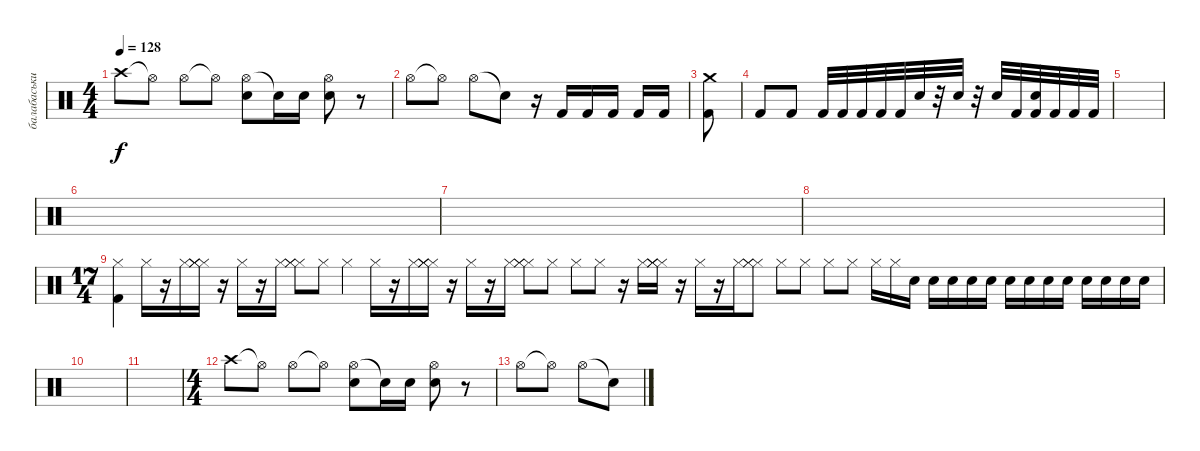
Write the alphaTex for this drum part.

\track ("балабаськи" "балабаськи") {instrument percussion}
\staff {score}
\articulation defaults
\ts (4 4)
\tempo 128
\clef neutral
\ks c "Crash high (hit)".8{dy f} "Hi-Hat (open)"{t}.8 "Hi-Hat (open)".8 "Hi-Hat (open)"{t}.8
("Hi-Hat (open)" "Snare (hit) 2").8 "Snare (hit)"{t}.16 "Snare (hit) 2".16 ("Hi-Hat (open)" "Snare (hit) 2").8 r.8 |
"Hi-Hat (open)".8 "Hi-Hat (open)"{t}.8 "Hi-Hat (open)".8 "Snare (hit)"{t}.8 r.16 "Kick (hit) 2".16 "Kick (hit) 2".16 "Kick (hit) 2".16 "Kick (hit) 2".16 "Kick (hit) 2".16 |
("Crash medium (hit)" "Kick (hit) 2").8 |
"Kick (hit) 2".8 "Kick (hit) 2".8 "Kick (hit) 2".32 "Kick (hit) 2".32 "Kick (hit) 2".32 "Kick (hit) 2".32 "Kick (hit) 2".32 "Snare (hit) 2".32 r.32 "Snare (hit) 2".32 r.32 "Snare (hit) 2".32 "Kick (hit) 2".32 ("Snare (hit) 2" "Kick (hit) 2").32 "Kick (hit) 2".32 "Kick (hit) 2".32 "Kick (hit) 2".32 |
|
|
|
|
\ts (17 4)
("Kick (hit) 2" "Hi-Hat (closed)").4 "Hi-Hat (closed)".16 r.16 "Hi-Hat (closed)".16 ("Hi-Hat (closed)" "Hi-Hat (closed)" "Hi-Hat (closed)" "Hi-Hat (closed)").16 r.16 "Hi-Hat (closed)".16 r.16 "Hi-Hat (closed)".16 ("Hi-Hat (closed)" "Hi-Hat (closed)" "Hi-Hat (closed)").8 "Hi-Hat (closed)".8 "Hi-Hat (closed)".4 "Hi-Hat (closed)".16 r.16 "Hi-Hat (closed)".16 ("Hi-Hat (closed)" "Hi-Hat (closed)" "Hi-Hat (closed)" "Hi-Hat (closed)").16 r.16 "Hi-Hat (closed)".16 r.16 "Hi-Hat (closed)".16 ("Hi-Hat (closed)" "Hi-Hat (closed)" "Hi-Hat (closed)").8 "Hi-Hat (closed)".8 "Hi-Hat (closed)".8 "Hi-Hat (closed)".8 r.16 "Hi-Hat (closed)".16 ("Hi-Hat (closed)" "Hi-Hat (closed)" "Hi-Hat (closed)" "Hi-Hat (closed)").16 r.16 "Hi-Hat (closed)".16 r.16 "Hi-Hat (closed)".16 ("Hi-Hat (closed)" "Hi-Hat (closed)" "Hi-Hat (closed)").8 "Hi-Hat (closed)".8 "Hi-Hat (closed)".8 "Hi-Hat (closed)".8 "Hi-Hat (closed)".8 "Hi-Hat (closed)".16 "Hi-Hat (closed)".16 "Snare (hit) 2".16 "Snare (hit) 2".16 "Snare (hit) 2".16 "Snare (hit) 2".16 "Snare (hit) 2".16 "Snare (hit) 2".16 "Snare (hit) 2".16 "Snare (hit) 2".16 "Snare (hit) 2".16 "Snare (hit) 2".16 "Snare (hit) 2".16 "Snare (hit) 2".16 "Snare (hit) 2".16 |
|
|
\ts (4 4)
"Crash high (hit)".8 "Hi-Hat (open)"{t}.8 "Hi-Hat (open)".8 "Hi-Hat (open)"{t}.8 ("Hi-Hat (open)" "Snare (hit) 2").8 "Snare (hit)"{t}.16 "Snare (hit) 2".16 ("Hi-Hat (open)" "Snare (hit) 2").8 r.8 |
"Hi-Hat (open)".8 "Hi-Hat (open)"{t}.8 "Hi-Hat (open)".8 "Snare (hit)"{t}.8
